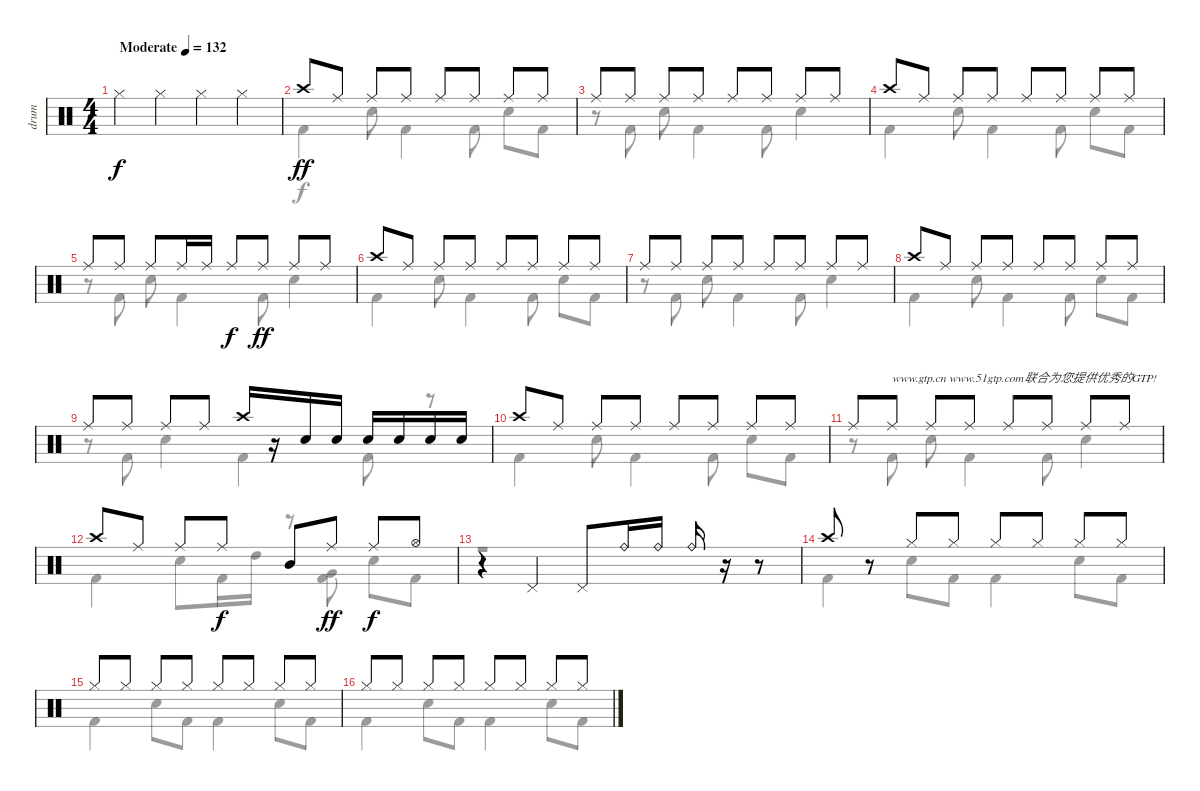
\track ("drum" "drum") {instrument percussion}
\staff {score}
\articulation defaults
\voice
\ts (4 4)
\tempo (132 "Moderate")
\clef neutral
\ks c "Hi-Hat (closed)".4{dy f} "Hi-Hat (closed)".4 "Hi-Hat (closed)".4 "Hi-Hat (closed)".4
|
"Crash high (hit)".8{dy ff} "Ride (middle)".8 "Ride (middle)".8 "Ride (middle)".8 "Ride (middle)".8 "Ride (middle)".8 "Ride (middle)".8 "Ride (middle)".8 |
"Ride (middle)".8 "Ride (middle)".8 "Ride (middle)".8 "Ride (middle)".8 "Ride (middle)".8 "Ride (middle)".8 "Ride (middle)".8 "Ride (middle)".8 |
"Crash high (hit)".8 "Ride (middle)".8 "Ride (middle)".8 "Ride (middle)".8 "Ride (middle)".8 "Ride (middle)".8 "Ride (middle)".8 "Ride (middle)".8 |
"Ride (middle)".8 "Ride (middle)".8 "Ride (middle)".8 "Ride (middle)".16 "Ride (middle)".16 "Ride (middle)".8{dy f} "Ride (middle)".8{dy ff} "Ride (middle)".8 "Ride (middle)".8 |
"Crash high (hit)".8 "Ride (middle)".8 "Ride (middle)".8 "Ride (middle)".8 "Ride (middle)".8 "Ride (middle)".8 "Ride (middle)".8 "Ride (middle)".8 |
"Ride (middle)".8 "Ride (middle)".8 "Ride (middle)".8 "Ride (middle)".8 "Ride (middle)".8 "Ride (middle)".8 "Ride (middle)".8 "Ride (middle)".8 |
"Crash high (hit)".8 "Ride (middle)".8 "Ride (middle)".8 "Ride (middle)".8 "Ride (middle)".8 "Ride (middle)".8 "Ride (middle)".8 "Ride (middle)".8 |
"Ride (middle)".8 "Ride (middle)".8 "Ride (middle)".8 "Ride (middle)".8 "Crash high (hit)".16 r.16 "Snare (hit) 2".16 "Snare (hit) 2".16 "Snare (hit) 2".16 "Snare (hit) 2".16 "Snare (hit) 2".16 "Snare (hit) 2".16 |
"Crash high (hit)".8 "Ride (middle)".8 "Ride (middle)".8 "Ride (middle)".8 "Ride (middle)".8 "Ride (middle)".8 "Ride (middle)".8 "Ride (middle)".8 |
"Ride (middle)".8 "Ride (middle)".8{txt "www.gtp.cn www.51gtp.com联合为您提供优秀的GTP!"} "Ride (middle)".8 "Ride (middle)".8 "Ride (middle)".8 "Ride (middle)".8 "Ride (middle)".8 "Ride (middle)".8 |
"Crash high (hit)".8 "Ride (middle)".8 "Ride (middle)".8 "Ride (middle)".8{dy f} "Mid Tom (hit)".8 "Ride (middle)".8{dy ff} "Ride (middle)".8{dy f} "Hi-Hat (open)".8 |
r.4 "Pedal Hi-Hat (hit)".4 "Pedal Hi-Hat (hit)".8 "Ride (bell)".16 "Ride (bell)".16 "Ride (bell)".16 r.16 r.8 |
"Crash high (hit)".8 r.8 "Hi-Hat (closed)".8 "Hi-Hat (closed)".8 "Hi-Hat (closed)".8 "Hi-Hat (closed)".8 "Hi-Hat (closed)".8 "Hi-Hat (closed)".8 |
"Hi-Hat (closed)".8 "Hi-Hat (closed)".8 "Hi-Hat (closed)".8 "Hi-Hat (closed)".8 "Hi-Hat (closed)".8 "Hi-Hat (closed)".8 "Hi-Hat (closed)".8 "Hi-Hat (closed)".8 |
"Hi-Hat (closed)".8 "Hi-Hat (closed)".8 "Hi-Hat (closed)".8 "Hi-Hat (closed)".8 "Hi-Hat (closed)".8 "Hi-Hat (closed)".8 "Hi-Hat (closed)".8 "Hi-Hat (closed)".8
\voice
\clef neutral
\ottava regular
\simile none
\ks c
|
"Kick (hit) 2".4 "Snare (hit) 2".8 "Kick (hit) 2".4 "Kick (hit) 2".8 "Snare (hit) 2".8 "Kick (hit) 2".8 |
r.8 "Kick (hit) 2".8 "Snare (hit) 2".8 "Kick (hit) 2".4 "Kick (hit) 2".8 "Snare (hit) 2".4 |
"Kick (hit) 2".4 "Snare (hit) 2".8 "Kick (hit) 2".4 "Kick (hit) 2".8 "Snare (hit) 2".8 "Kick (hit) 2".8 |
r.8 "Kick (hit) 2".8 "Snare (hit) 2".8 "Kick (hit) 2".4 "Kick (hit) 2".8 "Snare (hit) 2".4 |
"Kick (hit) 2".4 "Snare (hit) 2".8 "Kick (hit) 2".4 "Kick (hit) 2".8 "Snare (hit) 2".8 "Kick (hit) 2".8 |
r.8 "Kick (hit) 2".8 "Snare (hit) 2".8 "Kick (hit) 2".4 "Kick (hit) 2".8 "Snare (hit) 2".4 |
"Kick (hit) 2".4 "Snare (hit) 2".8 "Kick (hit) 2".4 "Kick (hit) 2".8 "Snare (hit) 2".8 "Kick (hit) 2".8 |
r.8 "Kick (hit) 2".8 "Snare (hit) 2".4 "Kick (hit) 2".4 "Kick (hit) 2".8 r.8 |
"Kick (hit) 2".4 "Snare (hit) 2".8 "Kick (hit) 2".4 "Kick (hit) 2".8 "Snare (hit) 2".8 "Kick (hit) 2".8 |
r.8 "Kick (hit) 2".8 "Snare (hit) 2".8 "Kick (hit) 2".4 "Kick (hit) 2".8 "Snare (hit) 2".4 |
"Kick (hit) 2".4 "Snare (hit) 2".8 "Kick (hit) 2".16 "High Tom (hit)".16{dy f} r.8 ("Very Low Tom (hit)" "Kick (hit) 2").8 "Snare (hit) 2".8 "Kick (hit) 2".8 |
r.1 |
"Kick (hit) 2".4 "Snare (hit) 2".8 "Kick (hit) 2".8 "Kick (hit) 2".4 "Snare (hit) 2".8 "Kick (hit) 2".8 |
"Kick (hit) 2".4 "Snare (hit) 2".8 "Kick (hit) 2".8 "Kick (hit) 2".4 "Snare (hit) 2".8 "Kick (hit) 2".8 |
"Kick (hit) 2".4 "Snare (hit) 2".8 "Kick (hit) 2".8 "Kick (hit) 2".4 "Snare (hit) 2".8 "Kick (hit) 2".8
